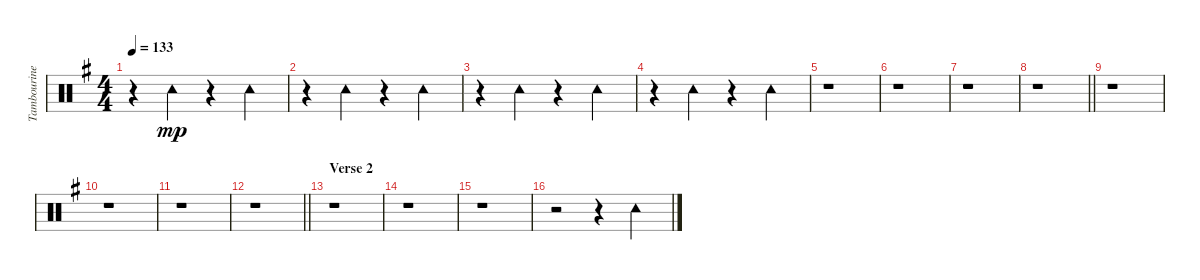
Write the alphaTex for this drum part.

\track ("Tambourine/Claps" "Tambourine") {instrument percussion}
\staff {score}
\articulation defaults
\ts (4 4)
\tempo 133
\clef neutral
\ks g
r.4{dy mp} "Tambourine (hit)".4 r.4 "Tambourine (hit)".4 |
r.4 "Tambourine (hit)".4 r.4 "Tambourine (hit)".4 |
r.4 "Tambourine (hit)".4 r.4 "Tambourine (hit)".4 |
r.4 "Tambourine (hit)".4 r.4 "Tambourine (hit)".4 |
r.1 |
r.1 |
r.1 |
\barLineRight lightlight
r.1 |
r.1 |
r.1 |
r.1 |
\barLineRight lightlight
r.1 |
\section ("" "Verse 2")
r.1 |
r.1 |
r.1 |
r.2 r.4 "Tambourine (hit)".4
